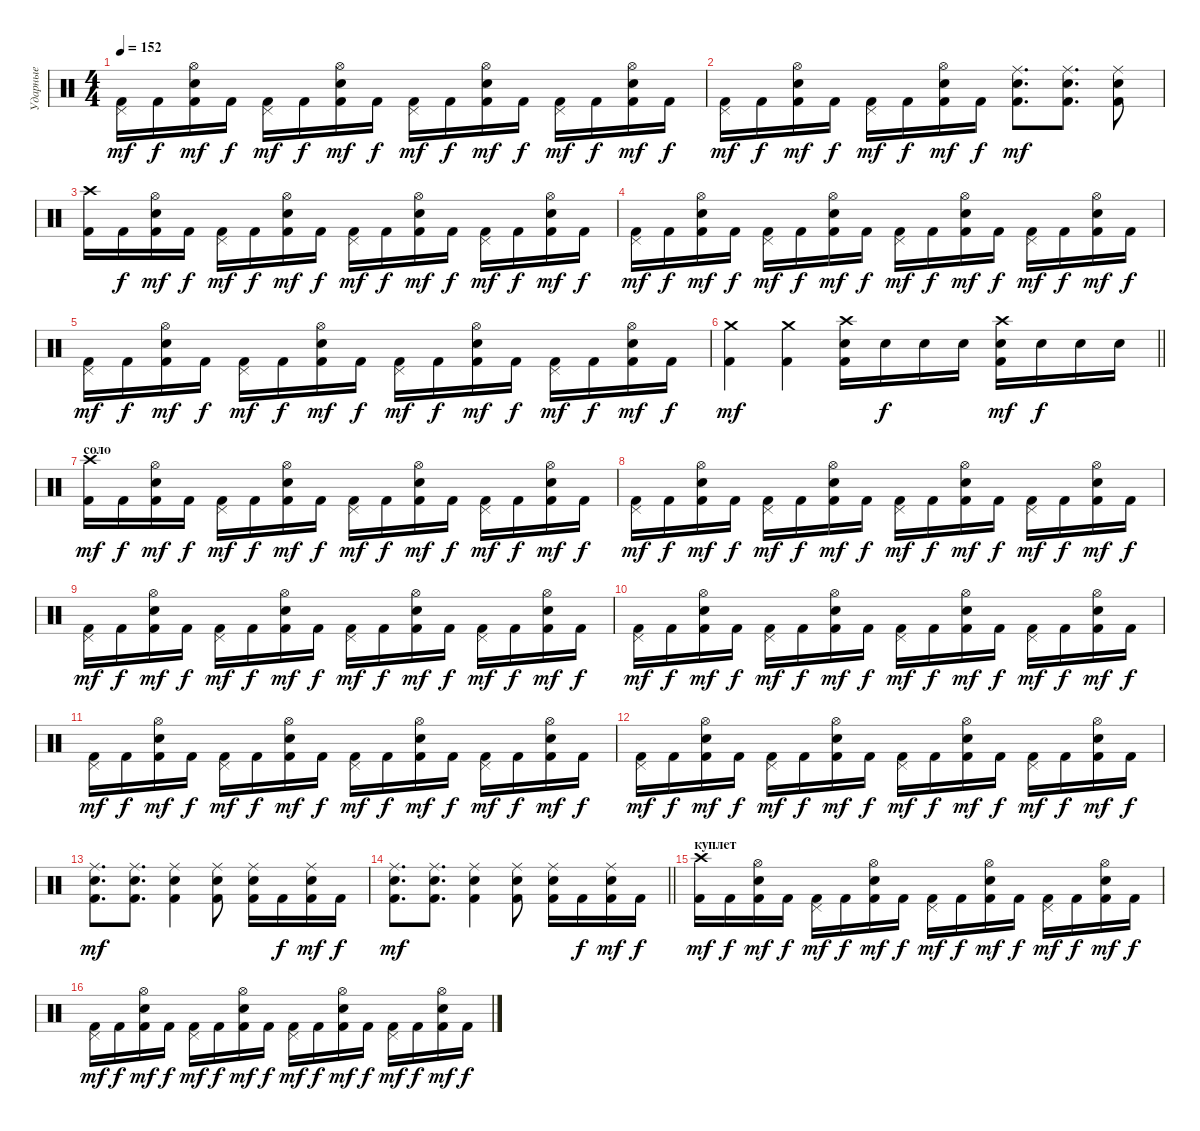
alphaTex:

\track ("Ударные" "Ударные") {instrument percussion}
\staff {score}
\articulation defaults
\ts (4 4)
\tempo 152
\clef neutral
\ks c
("Kick (hit) 2" "Pedal Hi-Hat (hit)").16{dy mf} "Kick (hit) 2".16{dy f} ("Kick (hit) 2" "Electric Snare (hit)" "Hi-Hat (open)").16{dy mf} "Kick (hit) 2".16{dy f} ("Kick (hit) 2" "Pedal Hi-Hat (hit)").16{dy mf} "Kick (hit) 2".16{dy f} ("Kick (hit) 2" "Electric Snare (hit)" "Hi-Hat (open)").16{dy mf} "Kick (hit) 2".16{dy f} ("Kick (hit) 2" "Pedal Hi-Hat (hit)").16{dy mf} "Kick (hit) 2".16{dy f} ("Kick (hit) 2" "Electric Snare (hit)" "Hi-Hat (open)").16{dy mf} "Kick (hit) 2".16{dy f} ("Kick (hit) 2" "Pedal Hi-Hat (hit)").16{dy mf} "Kick (hit) 2".16{dy f} ("Kick (hit) 2" "Electric Snare (hit)" "Hi-Hat (open)").16{dy mf} "Kick (hit) 2".16{dy f} |
("Kick (hit) 2" "Pedal Hi-Hat (hit)").16{dy mf} "Kick (hit) 2".16{dy f} ("Kick (hit) 2" "Electric Snare (hit)" "Hi-Hat (open)").16{dy mf} "Kick (hit) 2".16{dy f} ("Kick (hit) 2" "Pedal Hi-Hat (hit)").16{dy mf} "Kick (hit) 2".16{dy f} ("Kick (hit) 2" "Electric Snare (hit)" "Hi-Hat (open)").16{dy mf} "Kick (hit) 2".16{dy f} ("Kick (hit) 2" "Electric Snare (hit)" "Ride (middle)").8{d dy mf} ("Kick (hit) 2" "Electric Snare (hit)" "Ride (middle)").8{d} ("Kick (hit) 2" "Electric Snare (hit)" "Ride (middle)").8 |
("Kick (hit) 2" "Crash high (hit)").16 "Kick (hit) 2".16{dy f} ("Kick (hit) 2" "Electric Snare (hit)" "Hi-Hat (open)").16{dy mf} "Kick (hit) 2".16{dy f} ("Kick (hit) 2" "Pedal Hi-Hat (hit)").16{dy mf} "Kick (hit) 2".16{dy f} ("Kick (hit) 2" "Electric Snare (hit)" "Hi-Hat (open)").16{dy mf} "Kick (hit) 2".16{dy f} ("Kick (hit) 2" "Pedal Hi-Hat (hit)").16{dy mf} "Kick (hit) 2".16{dy f} ("Kick (hit) 2" "Electric Snare (hit)" "Hi-Hat (open)").16{dy mf} "Kick (hit) 2".16{dy f} ("Kick (hit) 2" "Pedal Hi-Hat (hit)").16{dy mf} "Kick (hit) 2".16{dy f} ("Kick (hit) 2" "Electric Snare (hit)" "Hi-Hat (open)").16{dy mf} "Kick (hit) 2".16{dy f} |
("Kick (hit) 2" "Pedal Hi-Hat (hit)").16{dy mf} "Kick (hit) 2".16{dy f} ("Kick (hit) 2" "Electric Snare (hit)" "Hi-Hat (open)").16{dy mf} "Kick (hit) 2".16{dy f} ("Kick (hit) 2" "Pedal Hi-Hat (hit)").16{dy mf} "Kick (hit) 2".16{dy f} ("Kick (hit) 2" "Electric Snare (hit)" "Hi-Hat (open)").16{dy mf} "Kick (hit) 2".16{dy f} ("Kick (hit) 2" "Pedal Hi-Hat (hit)").16{dy mf} "Kick (hit) 2".16{dy f} ("Kick (hit) 2" "Electric Snare (hit)" "Hi-Hat (open)").16{dy mf} "Kick (hit) 2".16{dy f} ("Kick (hit) 2" "Pedal Hi-Hat (hit)").16{dy mf} "Kick (hit) 2".16{dy f} ("Kick (hit) 2" "Electric Snare (hit)" "Hi-Hat (open)").16{dy mf} "Kick (hit) 2".16{dy f} |
("Kick (hit) 2" "Pedal Hi-Hat (hit)").16{dy mf} "Kick (hit) 2".16{dy f} ("Kick (hit) 2" "Electric Snare (hit)" "Hi-Hat (open)").16{dy mf} "Kick (hit) 2".16{dy f} ("Kick (hit) 2" "Pedal Hi-Hat (hit)").16{dy mf} "Kick (hit) 2".16{dy f} ("Kick (hit) 2" "Electric Snare (hit)" "Hi-Hat (open)").16{dy mf} "Kick (hit) 2".16{dy f} ("Kick (hit) 2" "Pedal Hi-Hat (hit)").16{dy mf} "Kick (hit) 2".16{dy f} ("Kick (hit) 2" "Electric Snare (hit)" "Hi-Hat (open)").16{dy mf} "Kick (hit) 2".16{dy f} ("Kick (hit) 2" "Pedal Hi-Hat (hit)").16{dy mf} "Kick (hit) 2".16{dy f} ("Kick (hit) 2" "Electric Snare (hit)" "Hi-Hat (open)").16{dy mf} "Kick (hit) 2".16{dy f} |
\barLineRight lightlight
("Kick (hit) 2" "Crash medium (hit)").4{dy mf} ("Kick (hit) 2" "Crash medium (hit)").4 ("Kick (hit) 2" "Electric Snare (hit)" "Crash high (hit)").16 "Electric Snare (hit)".16{dy f} "Electric Snare (hit)".16 "Electric Snare (hit)".16 ("Kick (hit) 2" "Electric Snare (hit)" "Crash high (hit)").16{dy mf} "Electric Snare (hit)".16{dy f} "Electric Snare (hit)".16 "Electric Snare (hit)".16 |
\section ("" "соло")
("Kick (hit) 2" "Crash high (hit)").16{dy mf} "Kick (hit) 2".16{dy f} ("Kick (hit) 2" "Electric Snare (hit)" "Hi-Hat (open)").16{dy mf} "Kick (hit) 2".16{dy f} ("Kick (hit) 2" "Pedal Hi-Hat (hit)").16{dy mf} "Kick (hit) 2".16{dy f} ("Kick (hit) 2" "Electric Snare (hit)" "Hi-Hat (open)").16{dy mf} "Kick (hit) 2".16{dy f} ("Kick (hit) 2" "Pedal Hi-Hat (hit)").16{dy mf} "Kick (hit) 2".16{dy f} ("Kick (hit) 2" "Electric Snare (hit)" "Hi-Hat (open)").16{dy mf} "Kick (hit) 2".16{dy f} ("Kick (hit) 2" "Pedal Hi-Hat (hit)").16{dy mf} "Kick (hit) 2".16{dy f} ("Kick (hit) 2" "Electric Snare (hit)" "Hi-Hat (open)").16{dy mf} "Kick (hit) 2".16{dy f} |
("Kick (hit) 2" "Pedal Hi-Hat (hit)").16{dy mf} "Kick (hit) 2".16{dy f} ("Kick (hit) 2" "Electric Snare (hit)" "Hi-Hat (open)").16{dy mf} "Kick (hit) 2".16{dy f} ("Kick (hit) 2" "Pedal Hi-Hat (hit)").16{dy mf} "Kick (hit) 2".16{dy f} ("Kick (hit) 2" "Electric Snare (hit)" "Hi-Hat (open)").16{dy mf} "Kick (hit) 2".16{dy f} ("Kick (hit) 2" "Pedal Hi-Hat (hit)").16{dy mf} "Kick (hit) 2".16{dy f} ("Kick (hit) 2" "Electric Snare (hit)" "Hi-Hat (open)").16{dy mf} "Kick (hit) 2".16{dy f} ("Kick (hit) 2" "Pedal Hi-Hat (hit)").16{dy mf} "Kick (hit) 2".16{dy f} ("Kick (hit) 2" "Electric Snare (hit)" "Hi-Hat (open)").16{dy mf} "Kick (hit) 2".16{dy f} |
("Kick (hit) 2" "Pedal Hi-Hat (hit)").16{dy mf} "Kick (hit) 2".16{dy f} ("Kick (hit) 2" "Electric Snare (hit)" "Hi-Hat (open)").16{dy mf} "Kick (hit) 2".16{dy f} ("Kick (hit) 2" "Pedal Hi-Hat (hit)").16{dy mf} "Kick (hit) 2".16{dy f} ("Kick (hit) 2" "Electric Snare (hit)" "Hi-Hat (open)").16{dy mf} "Kick (hit) 2".16{dy f} ("Kick (hit) 2" "Pedal Hi-Hat (hit)").16{dy mf} "Kick (hit) 2".16{dy f} ("Kick (hit) 2" "Electric Snare (hit)" "Hi-Hat (open)").16{dy mf} "Kick (hit) 2".16{dy f} ("Kick (hit) 2" "Pedal Hi-Hat (hit)").16{dy mf} "Kick (hit) 2".16{dy f} ("Kick (hit) 2" "Electric Snare (hit)" "Hi-Hat (open)").16{dy mf} "Kick (hit) 2".16{dy f} |
("Kick (hit) 2" "Pedal Hi-Hat (hit)").16{dy mf} "Kick (hit) 2".16{dy f} ("Kick (hit) 2" "Electric Snare (hit)" "Hi-Hat (open)").16{dy mf} "Kick (hit) 2".16{dy f} ("Kick (hit) 2" "Pedal Hi-Hat (hit)").16{dy mf} "Kick (hit) 2".16{dy f} ("Kick (hit) 2" "Electric Snare (hit)" "Hi-Hat (open)").16{dy mf} "Kick (hit) 2".16{dy f} ("Kick (hit) 2" "Pedal Hi-Hat (hit)").16{dy mf} "Kick (hit) 2".16{dy f} ("Kick (hit) 2" "Electric Snare (hit)" "Hi-Hat (open)").16{dy mf} "Kick (hit) 2".16{dy f} ("Kick (hit) 2" "Pedal Hi-Hat (hit)").16{dy mf} "Kick (hit) 2".16{dy f} ("Kick (hit) 2" "Electric Snare (hit)" "Hi-Hat (open)").16{dy mf} "Kick (hit) 2".16{dy f} |
("Kick (hit) 2" "Pedal Hi-Hat (hit)").16{dy mf} "Kick (hit) 2".16{dy f} ("Kick (hit) 2" "Electric Snare (hit)" "Hi-Hat (open)").16{dy mf} "Kick (hit) 2".16{dy f} ("Kick (hit) 2" "Pedal Hi-Hat (hit)").16{dy mf} "Kick (hit) 2".16{dy f} ("Kick (hit) 2" "Electric Snare (hit)" "Hi-Hat (open)").16{dy mf} "Kick (hit) 2".16{dy f} ("Kick (hit) 2" "Pedal Hi-Hat (hit)").16{dy mf} "Kick (hit) 2".16{dy f} ("Kick (hit) 2" "Electric Snare (hit)" "Hi-Hat (open)").16{dy mf} "Kick (hit) 2".16{dy f} ("Kick (hit) 2" "Pedal Hi-Hat (hit)").16{dy mf} "Kick (hit) 2".16{dy f} ("Kick (hit) 2" "Electric Snare (hit)" "Hi-Hat (open)").16{dy mf} "Kick (hit) 2".16{dy f} |
("Kick (hit) 2" "Pedal Hi-Hat (hit)").16{dy mf} "Kick (hit) 2".16{dy f} ("Kick (hit) 2" "Electric Snare (hit)" "Hi-Hat (open)").16{dy mf} "Kick (hit) 2".16{dy f} ("Kick (hit) 2" "Pedal Hi-Hat (hit)").16{dy mf} "Kick (hit) 2".16{dy f} ("Kick (hit) 2" "Electric Snare (hit)" "Hi-Hat (open)").16{dy mf} "Kick (hit) 2".16{dy f} ("Kick (hit) 2" "Pedal Hi-Hat (hit)").16{dy mf} "Kick (hit) 2".16{dy f} ("Kick (hit) 2" "Electric Snare (hit)" "Hi-Hat (open)").16{dy mf} "Kick (hit) 2".16{dy f} ("Kick (hit) 2" "Pedal Hi-Hat (hit)").16{dy mf} "Kick (hit) 2".16{dy f} ("Kick (hit) 2" "Electric Snare (hit)" "Hi-Hat (open)").16{dy mf} "Kick (hit) 2".16{dy f} |
("Kick (hit) 2" "Electric Snare (hit)" "Ride (middle)").8{d dy mf} ("Kick (hit) 2" "Electric Snare (hit)" "Ride (middle)").8{d} ("Kick (hit) 2" "Electric Snare (hit)" "Ride (middle)").4 ("Kick (hit) 2" "Electric Snare (hit)" "Ride (middle)").8 ("Kick (hit) 2" "Electric Snare (hit)" "Ride (middle)").16 "Kick (hit) 2".16{dy f} ("Kick (hit) 2" "Electric Snare (hit)" "Ride (middle)").16{dy mf} "Kick (hit) 2".16{dy f} |
\barLineRight lightlight
("Kick (hit) 2" "Electric Snare (hit)" "Ride (middle)").8{d dy mf} ("Kick (hit) 2" "Electric Snare (hit)" "Ride (middle)").8{d} ("Kick (hit) 2" "Electric Snare (hit)" "Ride (middle)").4 ("Kick (hit) 2" "Electric Snare (hit)" "Ride (middle)").8 ("Kick (hit) 2" "Electric Snare (hit)" "Ride (middle)").16 "Kick (hit) 2".16{dy f} ("Kick (hit) 2" "Electric Snare (hit)" "Ride (middle)").16{dy mf} "Kick (hit) 2".16{dy f} |
\section ("" "куплет")
("Kick (hit) 2" "Crash high (hit)").16{dy mf} "Kick (hit) 2".16{dy f} ("Kick (hit) 2" "Electric Snare (hit)" "Hi-Hat (open)").16{dy mf} "Kick (hit) 2".16{dy f} ("Kick (hit) 2" "Pedal Hi-Hat (hit)").16{dy mf} "Kick (hit) 2".16{dy f} ("Kick (hit) 2" "Electric Snare (hit)" "Hi-Hat (open)").16{dy mf} "Kick (hit) 2".16{dy f} ("Kick (hit) 2" "Pedal Hi-Hat (hit)").16{dy mf} "Kick (hit) 2".16{dy f} ("Kick (hit) 2" "Electric Snare (hit)" "Hi-Hat (open)").16{dy mf} "Kick (hit) 2".16{dy f} ("Kick (hit) 2" "Pedal Hi-Hat (hit)").16{dy mf} "Kick (hit) 2".16{dy f} ("Kick (hit) 2" "Electric Snare (hit)" "Hi-Hat (open)").16{dy mf} "Kick (hit) 2".16{dy f} |
("Kick (hit) 2" "Pedal Hi-Hat (hit)").16{dy mf} "Kick (hit) 2".16{dy f} ("Kick (hit) 2" "Electric Snare (hit)" "Hi-Hat (open)").16{dy mf} "Kick (hit) 2".16{dy f} ("Kick (hit) 2" "Pedal Hi-Hat (hit)").16{dy mf} "Kick (hit) 2".16{dy f} ("Kick (hit) 2" "Electric Snare (hit)" "Hi-Hat (open)").16{dy mf} "Kick (hit) 2".16{dy f} ("Kick (hit) 2" "Pedal Hi-Hat (hit)").16{dy mf} "Kick (hit) 2".16{dy f} ("Kick (hit) 2" "Electric Snare (hit)" "Hi-Hat (open)").16{dy mf} "Kick (hit) 2".16{dy f} ("Kick (hit) 2" "Pedal Hi-Hat (hit)").16{dy mf} "Kick (hit) 2".16{dy f} ("Kick (hit) 2" "Electric Snare (hit)" "Hi-Hat (open)").16{dy mf} "Kick (hit) 2".16{dy f}
